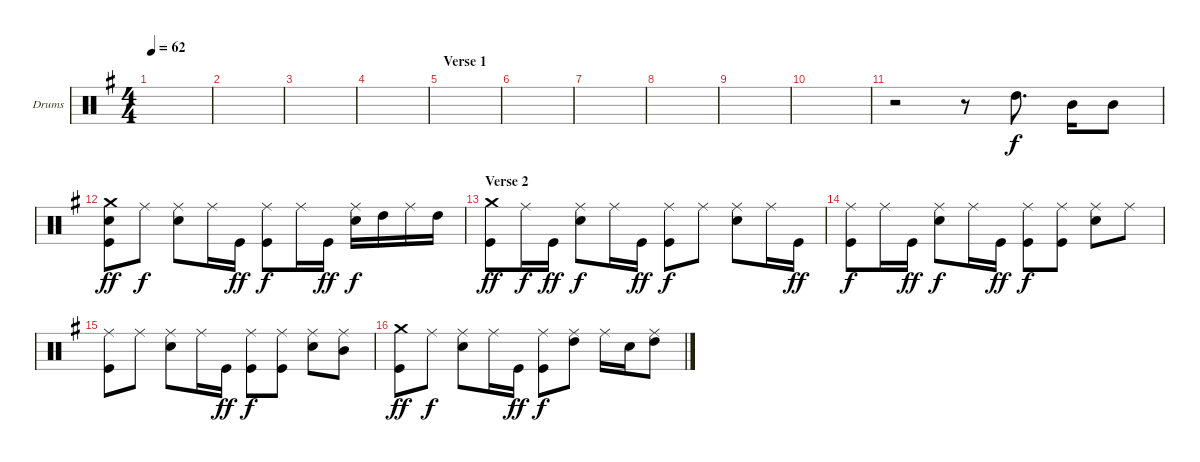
\defaultSystemsLayout 4
\bracketExtendMode groupsimilarinstruments
\firstSystemTrackNameOrientation horizontal
\otherSystemsTrackNameOrientation horizontal
\track ("Drumkit" "Drums") {instrument percussion}
\staff {score}
\articulation defaults
\ts (4 4)
\tempo 62
\clef neutral
\scale
0.333333
\ks g
|
\scale
0.333333 |
\scale
0.333333 |
\scale
0.333333 |
\section ("" "Verse 1")
\scale
0.333333 |
\scale
0.333333 |
\scale
0.333333 |
\scale
0.333333 |
\scale
0.333333 |
\scale
0.333333 |
\scale
0.333333 r.2 r.8 "High Tom (hit)".8{d} "Mid Tom (hit)".16 "Mid Tom (hit)".8 |
\scale
0.333333 ("Crash medium (hit)" "Snare (hit) 2" "Kick (hit)").8{dy ff} "Ride (middle)".8{dy f} ("Ride (middle)" "Snare (hit) 2").8 "Ride (middle)".16 "Kick (hit)".16{dy ff} ("Ride (middle)" "Kick (hit)").8{dy f} "Ride (middle)".16 "Kick (hit)".16{dy ff} ("Ride (middle)" "Snare (hit) 2").16{dy f} "High Tom (hit)".16 "Ride (middle)".16 "High Tom (hit)".16 |
\section ("" "Verse 2")
\scale
0.333333 ("Crash medium (hit)" "Kick (hit)").8{dy ff} "Ride (middle)".16{dy f} "Kick (hit)".16{dy ff} ("Ride (middle)" "Snare (hit) 2").8{dy f} "Ride (middle)".16 "Kick (hit)".16{dy ff} ("Ride (middle)" "Kick (hit)").8{dy f} "Ride (middle)".8 ("Ride (middle)" "Snare (hit) 2").8 "Ride (middle)".16 "Kick (hit)".16{dy ff} |
\scale
0.333333 ("Ride (middle)" "Kick (hit)").8{dy f} "Ride (middle)".16 "Kick (hit)".16{dy ff} ("Ride (middle)" "Snare (hit) 2").8{dy f} "Ride (middle)".16 "Kick (hit)".16{dy ff} ("Ride (middle)" "Kick (hit)").8{dy f} ("Ride (middle)" "Kick (hit)").8 ("Ride (middle)" "Snare (hit) 2").8 "Ride (middle)".8 |
\scale
0.333333 ("Ride (middle)" "Kick (hit)").8 "Ride (middle)".8 ("Ride (middle)" "Snare (hit) 2").8 "Ride (middle)".16 "Kick (hit)".16{dy ff} ("Ride (middle)" "Kick (hit)").8{dy f} ("Ride (middle)" "Kick (hit)").8 ("Ride (middle)" "Snare (hit) 2").8 ("Ride (middle)" "Mid Tom (hit)").8 |
\scale
0.333333 ("Crash medium (hit)" "Kick (hit)").8{dy ff} "Ride (middle)".8{dy f} ("Ride (middle)" "Snare (hit) 2").8 "Ride (middle)".16 "Kick (hit)".16{dy ff} ("Ride (middle)" "Kick (hit)").8{dy f} ("Ride (middle)" "High Tom (hit)").8 "Ride (middle)".16 "Snare (hit) 2".16 ("Ride (middle)" "High Tom (hit)").8
